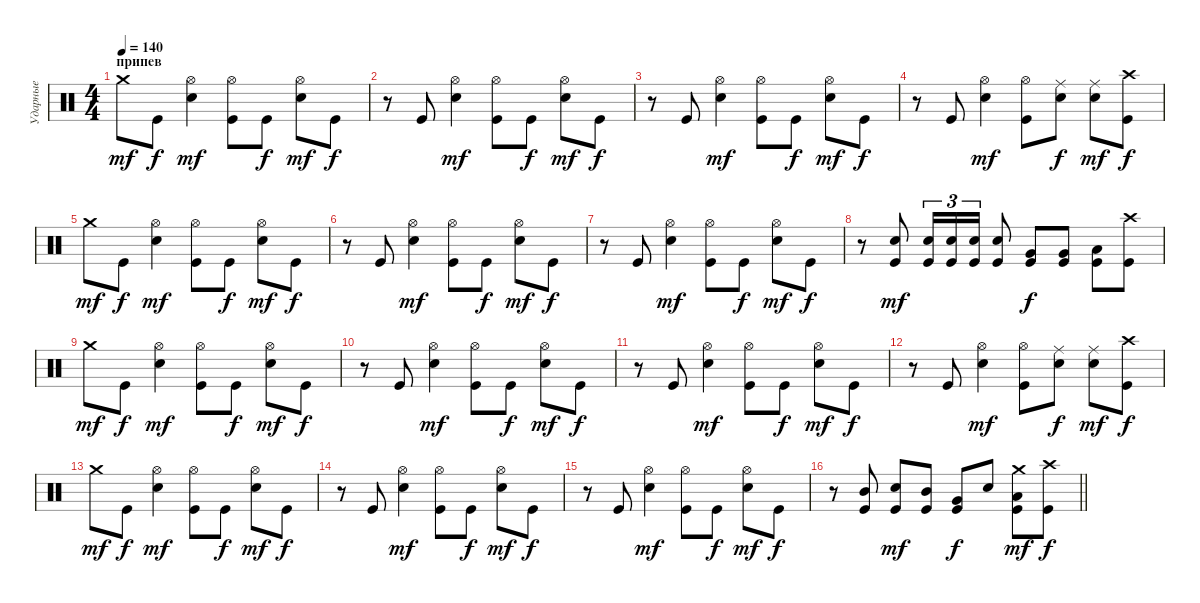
\track ("Ударные" "Ударные") {instrument percussion}
\staff {score}
\articulation defaults
\ts (4 4)
\section ("" "припев")
\tempo 140
\clef neutral
\ks c "Crash medium (hit)".8{dy mf} "Kick (hit)".8{dy f}
("Electric Snare (hit)" "Hi-Hat (open)").4{dy mf} ("Kick (hit)" "Hi-Hat (open)").8 "Kick (hit)".8{dy f} ("Electric Snare (hit)" "Hi-Hat (open)").8{dy mf} "Kick (hit)".8{dy f} |
r.8 "Kick (hit)".8 ("Electric Snare (hit)" "Hi-Hat (open)").4{dy mf} ("Kick (hit)" "Hi-Hat (open)").8 "Kick (hit)".8{dy f} ("Electric Snare (hit)" "Hi-Hat (open)").8{dy mf} "Kick (hit)".8{dy f} |
r.8 "Kick (hit)".8 ("Electric Snare (hit)" "Hi-Hat (open)").4{dy mf} ("Kick (hit)" "Hi-Hat (open)").8 "Kick (hit)".8{dy f} ("Electric Snare (hit)" "Hi-Hat (open)").8{dy mf} "Kick (hit)".8{dy f} |
r.8 "Kick (hit)".8 ("Electric Snare (hit)" "Hi-Hat (open)").4{dy mf} ("Kick (hit)" "Hi-Hat (open)").8 ("Electric Snare (hit)" "Ride (middle)").8{dy f} ("Electric Snare (hit)" "Ride (middle)").8{dy mf} ("Kick (hit)" "Crash high (hit)").8{dy f} |
"Crash medium (hit)".8{dy mf} "Kick (hit)".8{dy f} ("Electric Snare (hit)" "Hi-Hat (open)").4{dy mf} ("Kick (hit)" "Hi-Hat (open)").8 "Kick (hit)".8{dy f} ("Electric Snare (hit)" "Hi-Hat (open)").8{dy mf} "Kick (hit)".8{dy f} |
r.8 "Kick (hit)".8 ("Electric Snare (hit)" "Hi-Hat (open)").4{dy mf} ("Kick (hit)" "Hi-Hat (open)").8 "Kick (hit)".8{dy f} ("Electric Snare (hit)" "Hi-Hat (open)").8{dy mf} "Kick (hit)".8{dy f} |
r.8 "Kick (hit)".8 ("Electric Snare (hit)" "Hi-Hat (open)").4{dy mf} ("Kick (hit)" "Hi-Hat (open)").8 "Kick (hit)".8{dy f} ("Electric Snare (hit)" "Hi-Hat (open)").8{dy mf} "Kick (hit)".8{dy f} |
r.8 ("Kick (hit)" "Electric Snare (hit)").8{dy mf} ("Kick (hit)" "Electric Snare (hit)").16{tu (3 2)} ("Kick (hit)" "Electric Snare (hit)").16{tu (3 2)} ("Kick (hit)" "Electric Snare (hit)").16{tu (3 2)} ("Kick (hit)" "Electric Snare (hit)").8 ("Kick (hit)" "Very Low Tom (hit)").8{dy f} ("Kick (hit)" "Very Low Tom (hit)").8 ("Kick (hit)" "Low Floor Tom (hit)").8 ("Kick (hit)" "Crash high (hit)").8 |
"Crash medium (hit)".8{dy mf} "Kick (hit)".8{dy f} ("Electric Snare (hit)" "Hi-Hat (open)").4{dy mf} ("Kick (hit)" "Hi-Hat (open)").8 "Kick (hit)".8{dy f} ("Electric Snare (hit)" "Hi-Hat (open)").8{dy mf} "Kick (hit)".8{dy f} |
r.8 "Kick (hit)".8 ("Electric Snare (hit)" "Hi-Hat (open)").4{dy mf} ("Kick (hit)" "Hi-Hat (open)").8 "Kick (hit)".8{dy f} ("Electric Snare (hit)" "Hi-Hat (open)").8{dy mf} "Kick (hit)".8{dy f} |
r.8 "Kick (hit)".8 ("Electric Snare (hit)" "Hi-Hat (open)").4{dy mf} ("Kick (hit)" "Hi-Hat (open)").8 "Kick (hit)".8{dy f} ("Electric Snare (hit)" "Hi-Hat (open)").8{dy mf} "Kick (hit)".8{dy f} |
r.8 "Kick (hit)".8 ("Electric Snare (hit)" "Hi-Hat (open)").4{dy mf} ("Kick (hit)" "Hi-Hat (open)").8 ("Electric Snare (hit)" "Ride (middle)").8{dy f} ("Electric Snare (hit)" "Ride (middle)").8{dy mf} ("Kick (hit)" "Crash high (hit)").8{dy f} |
"Crash medium (hit)".8{dy mf} "Kick (hit)".8{dy f} ("Electric Snare (hit)" "Hi-Hat (open)").4{dy mf} ("Kick (hit)" "Hi-Hat (open)").8 "Kick (hit)".8{dy f} ("Electric Snare (hit)" "Hi-Hat (open)").8{dy mf} "Kick (hit)".8{dy f} |
r.8 "Kick (hit)".8 ("Electric Snare (hit)" "Hi-Hat (open)").4{dy mf} ("Kick (hit)" "Hi-Hat (open)").8 "Kick (hit)".8{dy f} ("Electric Snare (hit)" "Hi-Hat (open)").8{dy mf} "Kick (hit)".8{dy f} |
r.8 "Kick (hit)".8 ("Electric Snare (hit)" "Hi-Hat (open)").4{dy mf} ("Kick (hit)" "Hi-Hat (open)").8 "Kick (hit)".8{dy f} ("Electric Snare (hit)" "Hi-Hat (open)").8{dy mf} "Kick (hit)".8{dy f} |
\barLineRight lightlight
r.8 ("Kick (hit)" "Mid Tom (hit)").8 ("Kick (hit)" "Electric Snare (hit)").8{dy mf} ("Kick (hit)" "Mid Tom (hit)").8 ("Kick (hit)" "Very Low Tom (hit)").8{dy f} "Electric Snare (hit)".8 ("Kick (hit)" "Low Floor Tom (hit)" "Crash medium (hit)").8{dy mf} ("Kick (hit)" "Crash high (hit)").8{dy f}
